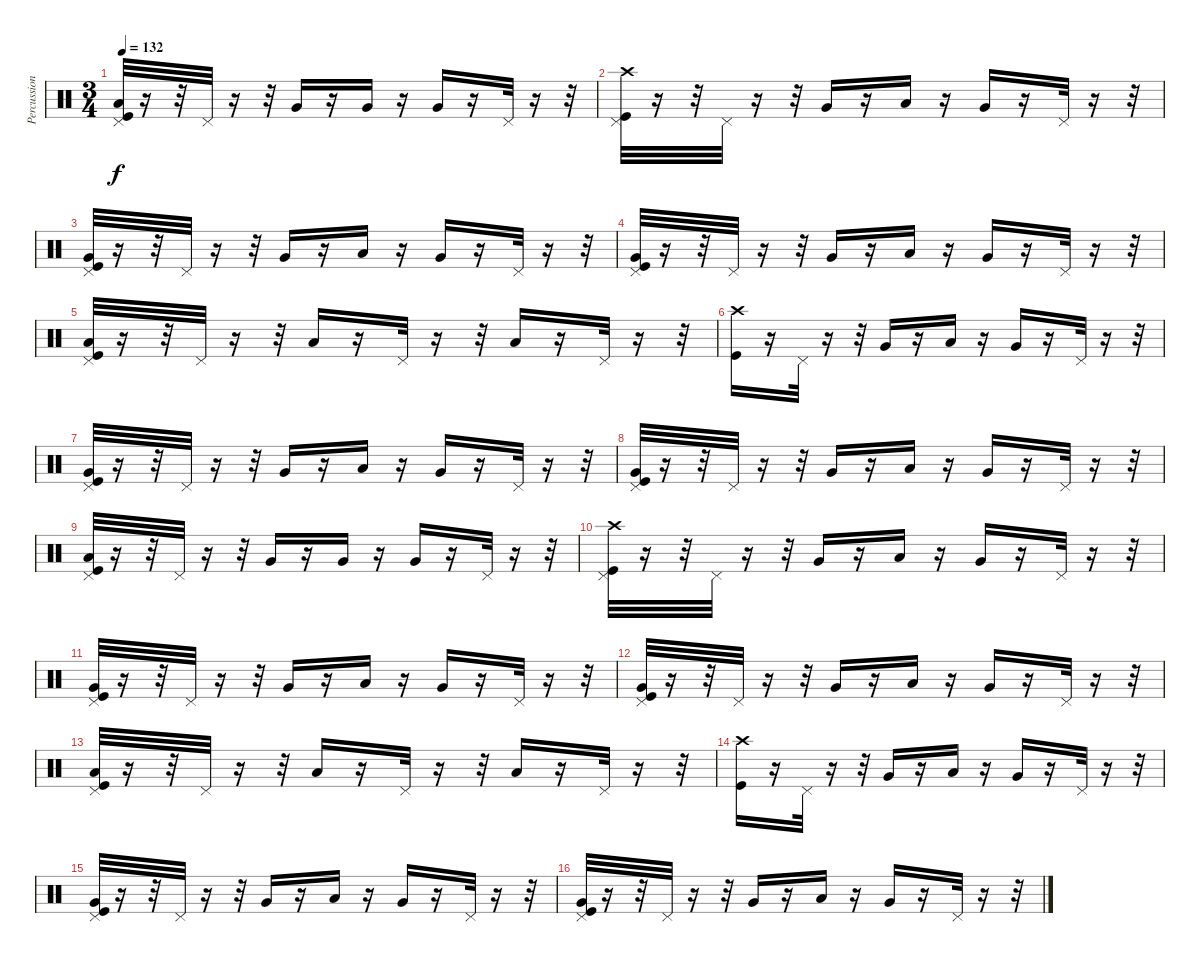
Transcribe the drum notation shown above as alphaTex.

\track ("Percussion" "Percussion") {instrument percussion}
\staff {score}
\articulation defaults
\ts (3 4)
\tempo 132
\clef neutral
\ks c
("Kick (hit)" "Low Tom (hit)" "Pedal Hi-Hat (hit)").32{dy f} r.16 r.32 "Pedal Hi-Hat (hit)".32 r.16 r.32 "Very Low Tom (hit)".16 r.16 "Very Low Tom (hit)".16 r.16 "Very Low Tom (hit)".16 r.16 "Pedal Hi-Hat (hit)".32 r.16 r.32 |
("Kick (hit)" "Crash high (hit)" "Pedal Hi-Hat (hit)").32 r.16 r.32 "Pedal Hi-Hat (hit)".32 r.16 r.32 "Very Low Tom (hit)".16 r.16 "Low Tom (hit)".16 r.16 "Very Low Tom (hit)".16 r.16 "Pedal Hi-Hat (hit)".32 r.16 r.32 |
("Kick (hit)" "Pedal Hi-Hat (hit)" "Very Low Tom (hit)").32 r.16 r.32 "Pedal Hi-Hat (hit)".32 r.16 r.32 "Very Low Tom (hit)".16 r.16 "Low Tom (hit)".16 r.16 "Very Low Tom (hit)".16 r.16 "Pedal Hi-Hat (hit)".32 r.16 r.32 |
("Kick (hit)" "Pedal Hi-Hat (hit)" "Very Low Tom (hit)").32 r.16 r.32 "Pedal Hi-Hat (hit)".32 r.16 r.32 "Very Low Tom (hit)".16 r.16 "Low Tom (hit)".16 r.16 "Very Low Tom (hit)".16 r.16 "Pedal Hi-Hat (hit)".32 r.16 r.32 |
("Kick (hit)" "Low Tom (hit)" "Pedal Hi-Hat (hit)").32 r.16 r.32 "Pedal Hi-Hat (hit)".32 r.16 r.32 "Low Floor Tom (hit)".16 r.16 "Pedal Hi-Hat (hit)".32 r.16 r.32 "Low Floor Tom (hit)".16 r.16 "Pedal Hi-Hat (hit)".32 r.16 r.32 |
("Crash high (hit)" "Kick (hit)").16 r.16 "Pedal Hi-Hat (hit)".32 r.16 r.32 "Very Low Tom (hit)".16 r.16 "Low Tom (hit)".16 r.16 "Very Low Tom (hit)".16 r.16 "Pedal Hi-Hat (hit)".32 r.16 r.32 |
("Kick (hit)" "Pedal Hi-Hat (hit)" "Very Low Tom (hit)").32 r.16 r.32 "Pedal Hi-Hat (hit)".32 r.16 r.32 "Very Low Tom (hit)".16 r.16 "Low Tom (hit)".16 r.16 "Very Low Tom (hit)".16 r.16 "Pedal Hi-Hat (hit)".32 r.16 r.32 |
("Kick (hit)" "Pedal Hi-Hat (hit)" "Very Low Tom (hit)").32 r.16 r.32 "Pedal Hi-Hat (hit)".32 r.16 r.32 "Very Low Tom (hit)".16 r.16 "Low Tom (hit)".16 r.16 "Very Low Tom (hit)".16 r.16 "Pedal Hi-Hat (hit)".32 r.16 r.32 |
("Kick (hit)" "Low Tom (hit)" "Pedal Hi-Hat (hit)").32 r.16 r.32 "Pedal Hi-Hat (hit)".32 r.16 r.32 "Very Low Tom (hit)".16 r.16 "Very Low Tom (hit)".16 r.16 "Very Low Tom (hit)".16 r.16 "Pedal Hi-Hat (hit)".32 r.16 r.32 |
("Kick (hit)" "Crash high (hit)" "Pedal Hi-Hat (hit)").32 r.16 r.32 "Pedal Hi-Hat (hit)".32 r.16 r.32 "Very Low Tom (hit)".16 r.16 "Low Tom (hit)".16 r.16 "Very Low Tom (hit)".16 r.16 "Pedal Hi-Hat (hit)".32 r.16 r.32 |
("Kick (hit)" "Pedal Hi-Hat (hit)" "Very Low Tom (hit)").32 r.16 r.32 "Pedal Hi-Hat (hit)".32 r.16 r.32 "Very Low Tom (hit)".16 r.16 "Low Tom (hit)".16 r.16 "Very Low Tom (hit)".16 r.16 "Pedal Hi-Hat (hit)".32 r.16 r.32 |
("Kick (hit)" "Pedal Hi-Hat (hit)" "Very Low Tom (hit)").32 r.16 r.32 "Pedal Hi-Hat (hit)".32 r.16 r.32 "Very Low Tom (hit)".16 r.16 "Low Tom (hit)".16 r.16 "Very Low Tom (hit)".16 r.16 "Pedal Hi-Hat (hit)".32 r.16 r.32 |
("Kick (hit)" "Low Tom (hit)" "Pedal Hi-Hat (hit)").32 r.16 r.32 "Pedal Hi-Hat (hit)".32 r.16 r.32 "Low Floor Tom (hit)".16 r.16 "Pedal Hi-Hat (hit)".32 r.16 r.32 "Low Floor Tom (hit)".16 r.16 "Pedal Hi-Hat (hit)".32 r.16 r.32 |
("Crash high (hit)" "Kick (hit)").16 r.16 "Pedal Hi-Hat (hit)".32 r.16 r.32 "Very Low Tom (hit)".16 r.16 "Low Tom (hit)".16 r.16 "Very Low Tom (hit)".16 r.16 "Pedal Hi-Hat (hit)".32 r.16 r.32 |
("Kick (hit)" "Pedal Hi-Hat (hit)" "Very Low Tom (hit)").32 r.16 r.32 "Pedal Hi-Hat (hit)".32 r.16 r.32 "Very Low Tom (hit)".16 r.16 "Low Tom (hit)".16 r.16 "Very Low Tom (hit)".16 r.16 "Pedal Hi-Hat (hit)".32 r.16 r.32 |
("Kick (hit)" "Pedal Hi-Hat (hit)" "Very Low Tom (hit)").32 r.16 r.32 "Pedal Hi-Hat (hit)".32 r.16 r.32 "Very Low Tom (hit)".16 r.16 "Low Tom (hit)".16 r.16 "Very Low Tom (hit)".16 r.16 "Pedal Hi-Hat (hit)".32 r.16 r.32
